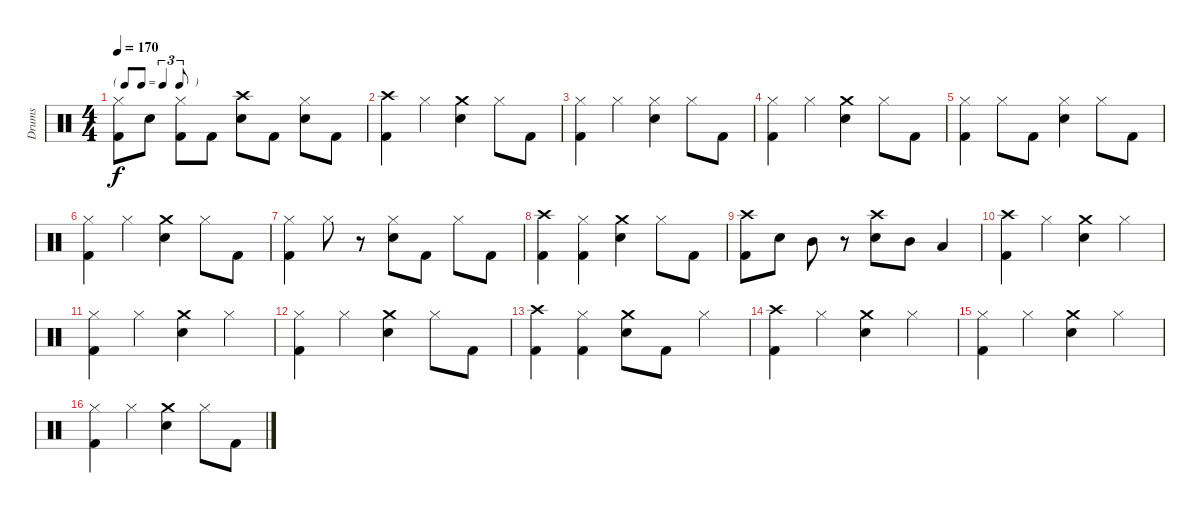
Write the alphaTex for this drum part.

\track ("Drums" "Drums") {instrument percussion}
\staff {score}
\articulation defaults
\ts (4 4)
\tf triplet8th
\tempo 170
\clef neutral
\ks c
("Hi-Hat (closed)" "Kick (hit) 2").8{dy f} "Snare (hit) 2".8 ("Hi-Hat (closed)" "Kick (hit) 2").8 "Kick (hit) 2".8 ("Crash high (hit)" "Snare (hit) 2").8 "Kick (hit) 2".8 ("Hi-Hat (closed)" "Snare (hit) 2").8 "Kick (hit) 2".8 |
("Crash high (hit)" "Kick (hit) 2").4 "Hi-Hat (closed)".4 ("Crash medium (hit)" "Snare (hit) 2").4 "Hi-Hat (closed)".8 "Kick (hit) 2".8 |
("Hi-Hat (closed)" "Kick (hit) 2").4 "Hi-Hat (closed)".4 ("Hi-Hat (closed)" "Snare (hit) 2").4 "Hi-Hat (closed)".8 "Kick (hit) 2".8 |
("Hi-Hat (closed)" "Kick (hit) 2").4 "Hi-Hat (closed)".4 ("Crash medium (hit)" "Snare (hit) 2").4 "Hi-Hat (closed)".8 "Kick (hit) 2".8 |
("Hi-Hat (closed)" "Kick (hit) 2").4 "Hi-Hat (closed)".8 "Kick (hit) 2".8 ("Hi-Hat (closed)" "Snare (hit) 2").4 "Hi-Hat (closed)".8 "Kick (hit) 2".8 |
("Hi-Hat (closed)" "Kick (hit) 2").4 "Hi-Hat (closed)".4 ("Crash medium (hit)" "Snare (hit) 2").4 "Hi-Hat (closed)".8 "Kick (hit) 2".8 |
("Hi-Hat (closed)" "Kick (hit) 2").4 "Hi-Hat (closed)".8 r.8 ("Hi-Hat (closed)" "Snare (hit) 2").8 "Kick (hit) 2".8 "Hi-Hat (closed)".8 "Kick (hit) 2".8 |
("Crash high (hit)" "Kick (hit) 2").4 ("Hi-Hat (closed)" "Kick (hit) 2").4 ("Crash medium (hit)" "Snare (hit) 2").4 "Hi-Hat (closed)".8 "Kick (hit) 2".8 |
("Crash high (hit)" "Kick (hit) 2").8 "Snare (hit) 2".8 "Mid Tom (hit)".8 r.8 ("Crash high (hit)" "Snare (hit) 2").8 "Mid Tom (hit)".8 "Low Tom (hit)".4 |
("Crash high (hit)" "Kick (hit) 2").4 "Hi-Hat (closed)".4 ("Crash medium (hit)" "Snare (hit) 2").4 "Hi-Hat (closed)".4 |
("Hi-Hat (closed)" "Kick (hit) 2").4 "Hi-Hat (closed)".4 ("Crash medium (hit)" "Snare (hit) 2").4 "Hi-Hat (closed)".4 |
("Hi-Hat (closed)" "Kick (hit) 2").4 "Hi-Hat (closed)".4 ("Crash medium (hit)" "Snare (hit) 2").4 "Hi-Hat (closed)".8 "Kick (hit) 2".8 |
("Crash high (hit)" "Kick (hit) 2").4 ("Hi-Hat (closed)" "Kick (hit) 2").4 ("Crash medium (hit)" "Snare (hit) 2").8 "Kick (hit) 2".8 "Hi-Hat (closed)".4 |
("Crash high (hit)" "Kick (hit) 2").4 "Hi-Hat (closed)".4 ("Crash medium (hit)" "Snare (hit) 2").4 "Hi-Hat (closed)".4 |
("Hi-Hat (closed)" "Kick (hit) 2").4 "Hi-Hat (closed)".4 ("Crash medium (hit)" "Snare (hit) 2").4 "Hi-Hat (closed)".4 |
("Hi-Hat (closed)" "Kick (hit) 2").4 "Hi-Hat (closed)".4 ("Crash medium (hit)" "Snare (hit) 2").4 "Hi-Hat (closed)".8 "Kick (hit) 2".8
